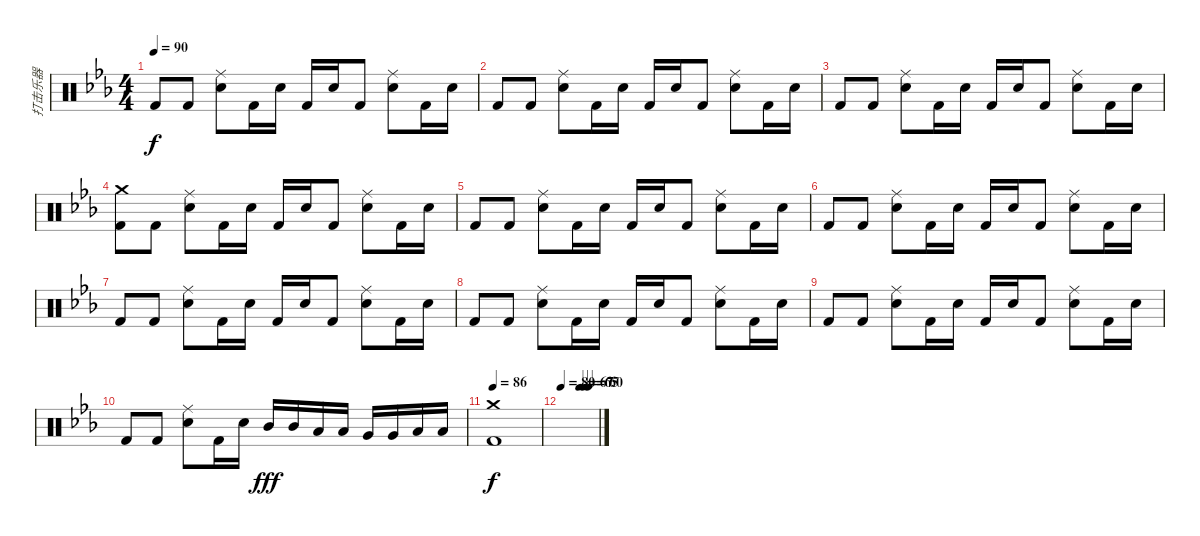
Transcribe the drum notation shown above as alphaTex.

\track ("打击乐器" "打击乐器") {instrument percussion}
\staff {score}
\articulation defaults
\ts (4 4)
\tempo 90
\clef neutral
\ks eb "Kick (hit) 2".8{dy f} "Kick (hit) 2".8
("Ride (middle)" "Electric Snare (hit)").8 "Kick (hit) 2".16 "Electric Snare (hit)".16 "Kick (hit) 2".16 "Electric Snare (hit)".16 "Kick (hit) 2".8 ("Ride (middle)" "Electric Snare (hit)").8 "Kick (hit) 2".16 "Electric Snare (hit)".16 |
"Kick (hit) 2".8 "Kick (hit) 2".8 ("Ride (middle)" "Electric Snare (hit)").8 "Kick (hit) 2".16 "Electric Snare (hit)".16 "Kick (hit) 2".16 "Electric Snare (hit)".16 "Kick (hit) 2".8 ("Ride (middle)" "Electric Snare (hit)").8 "Kick (hit) 2".16 "Electric Snare (hit)".16 |
"Kick (hit) 2".8 "Kick (hit) 2".8 ("Ride (middle)" "Electric Snare (hit)").8 "Kick (hit) 2".16 "Electric Snare (hit)".16 "Kick (hit) 2".16 "Electric Snare (hit)".16 "Kick (hit) 2".8 ("Ride (middle)" "Electric Snare (hit)").8 "Kick (hit) 2".16 "Electric Snare (hit)".16 |
("Crash medium (hit)" "Kick (hit) 2").8 "Kick (hit) 2".8 ("Ride (middle)" "Electric Snare (hit)").8 "Kick (hit) 2".16 "Electric Snare (hit)".16 "Kick (hit) 2".16 "Electric Snare (hit)".16 "Kick (hit) 2".8 ("Ride (middle)" "Electric Snare (hit)").8 "Kick (hit) 2".16 "Electric Snare (hit)".16 |
"Kick (hit) 2".8 "Kick (hit) 2".8 ("Ride (middle)" "Electric Snare (hit)").8 "Kick (hit) 2".16 "Electric Snare (hit)".16 "Kick (hit) 2".16 "Electric Snare (hit)".16 "Kick (hit) 2".8 ("Ride (middle)" "Electric Snare (hit)").8 "Kick (hit) 2".16 "Electric Snare (hit)".16 |
"Kick (hit) 2".8 "Kick (hit) 2".8 ("Ride (middle)" "Electric Snare (hit)").8 "Kick (hit) 2".16 "Electric Snare (hit)".16 "Kick (hit) 2".16 "Electric Snare (hit)".16 "Kick (hit) 2".8 ("Ride (middle)" "Electric Snare (hit)").8 "Kick (hit) 2".16 "Electric Snare (hit)".16 |
"Kick (hit) 2".8 "Kick (hit) 2".8 ("Ride (middle)" "Electric Snare (hit)").8 "Kick (hit) 2".16 "Electric Snare (hit)".16 "Kick (hit) 2".16 "Electric Snare (hit)".16 "Kick (hit) 2".8 ("Ride (middle)" "Electric Snare (hit)").8 "Kick (hit) 2".16 "Electric Snare (hit)".16 |
"Kick (hit) 2".8 "Kick (hit) 2".8 ("Ride (middle)" "Electric Snare (hit)").8 "Kick (hit) 2".16 "Electric Snare (hit)".16 "Kick (hit) 2".16 "Electric Snare (hit)".16 "Kick (hit) 2".8 ("Ride (middle)" "Electric Snare (hit)").8 "Kick (hit) 2".16 "Electric Snare (hit)".16 |
"Kick (hit) 2".8 "Kick (hit) 2".8 ("Ride (middle)" "Electric Snare (hit)").8 "Kick (hit) 2".16 "Electric Snare (hit)".16 "Kick (hit) 2".16 "Electric Snare (hit)".16 "Kick (hit) 2".8 ("Ride (middle)" "Electric Snare (hit)").8 "Kick (hit) 2".16 "Electric Snare (hit)".16 |
"Kick (hit) 2".8 "Kick (hit) 2".8 ("Ride (middle)" "Electric Snare (hit)").8 "Kick (hit) 2".16 "Electric Snare (hit)".16 "Mid Tom (hit)".16{dy fff} "Mid Tom (hit)".16 "Low Tom (hit)".16 "Low Tom (hit)".16 "Very Low Tom (hit)".16 "Very Low Tom (hit)".16 "Low Floor Tom (hit)".16 "Low Floor Tom (hit)".16 |
\tempo 86
("Crash medium (hit)" "Kick (hit) 2").1{dy f} |
\tempo 80
\tempo (67 0.5)
\tempo (65 0.625)
\tempo (60 0.75)
